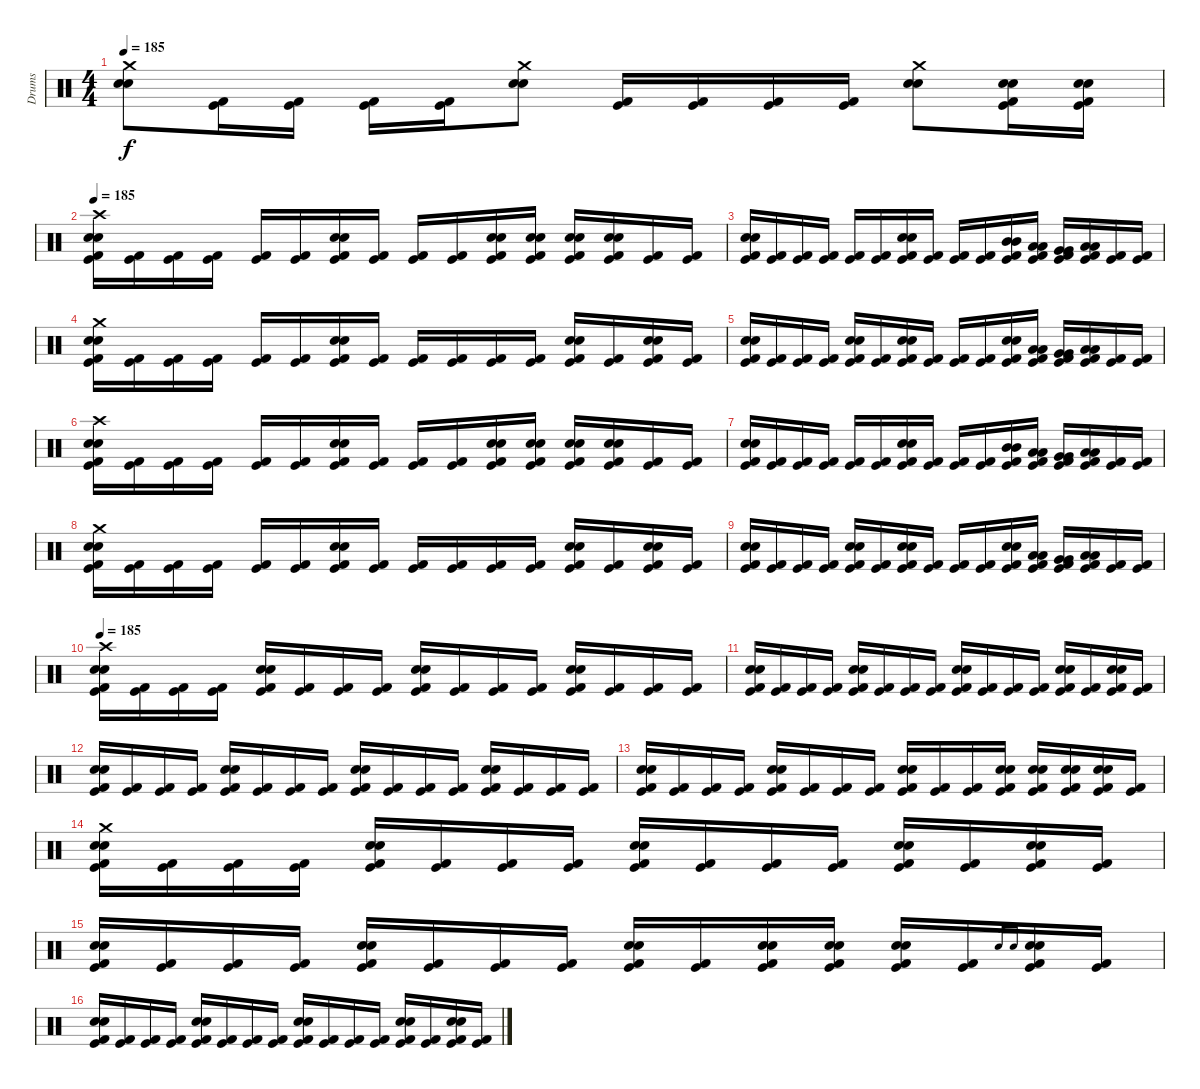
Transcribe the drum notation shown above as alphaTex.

\track ("Drums" "Drums") {instrument percussion}
\staff {score}
\articulation defaults
\ts (4 4)
\tempo 185
\clef neutral
\ks c
("Crash medium (hit)" "Electric Snare (hit)" "Snare (hit) 2").8{dy f} ("Kick (hit) 2" "Kick (hit)").16 ("Kick (hit) 2" "Kick (hit)").16 ("Kick (hit) 2" "Kick (hit)").16 ("Kick (hit) 2" "Kick (hit)").16 ("Crash medium (hit)" "Electric Snare (hit)" "Snare (hit) 2").8 ("Kick (hit) 2" "Kick (hit)").16 ("Kick (hit) 2" "Kick (hit)").16 ("Kick (hit) 2" "Kick (hit)").16 ("Kick (hit) 2" "Kick (hit)").16 ("Crash medium (hit)" "Electric Snare (hit)" "Snare (hit) 2").8 ("Electric Snare (hit)" "Snare (hit) 2" "Kick (hit) 2" "Kick (hit)").16 ("Electric Snare (hit)" "Snare (hit) 2" "Kick (hit) 2" "Kick (hit)").16 |
\tempo 185
("Crash high (hit)" "Electric Snare (hit)" "Snare (hit) 2" "Kick (hit) 2" "Kick (hit)").16 ("Kick (hit) 2" "Kick (hit)").16 ("Kick (hit) 2" "Kick (hit)").16 ("Kick (hit) 2" "Kick (hit)").16 ("Kick (hit) 2" "Kick (hit)").16 ("Kick (hit) 2" "Kick (hit)").16 ("Electric Snare (hit)" "Snare (hit) 2" "Kick (hit) 2" "Kick (hit)").16 ("Kick (hit) 2" "Kick (hit)").16 ("Kick (hit) 2" "Kick (hit)").16 ("Kick (hit) 2" "Kick (hit)").16 ("Electric Snare (hit)" "Snare (hit) 2" "Kick (hit) 2" "Kick (hit)").16 ("Electric Snare (hit)" "Snare (hit) 2" "Kick (hit) 2" "Kick (hit)").16 ("Electric Snare (hit)" "Snare (hit) 2" "Kick (hit) 2" "Kick (hit)").16 ("Electric Snare (hit)" "Snare (hit) 2" "Kick (hit) 2" "Kick (hit)").16 ("Kick (hit) 2" "Kick (hit)").16 ("Kick (hit) 2" "Kick (hit)").16 |
("Electric Snare (hit)" "Snare (hit) 2" "Kick (hit) 2" "Kick (hit)").16 ("Kick (hit) 2" "Kick (hit)").16 ("Kick (hit) 2" "Kick (hit)").16 ("Kick (hit) 2" "Kick (hit)").16 ("Kick (hit) 2" "Kick (hit)").16 ("Kick (hit) 2" "Kick (hit)").16 ("Electric Snare (hit)" "Snare (hit) 2" "Kick (hit) 2" "Kick (hit)").16 ("Kick (hit) 2" "Kick (hit)").16 ("Kick (hit) 2" "Kick (hit)").16 ("Kick (hit) 2" "Kick (hit)").16 ("Mid Tom (hit)" "Mid Tom (hit)" "Kick (hit) 2" "Kick (hit)").16 ("Low Tom (hit)" "Low Tom (hit)" "Kick (hit) 2" "Kick (hit)").16 ("Very Low Tom (hit)" "Very Low Tom (hit)" "Kick (hit) 2" "Kick (hit)").16 ("Low Floor Tom (hit)" "Low Floor Tom (hit)" "Kick (hit) 2" "Kick (hit)").16 ("Kick (hit) 2" "Kick (hit)").16 ("Kick (hit) 2" "Kick (hit)").16 |
("Crash medium (hit)" "Electric Snare (hit)" "Snare (hit) 2" "Kick (hit) 2" "Kick (hit)").16 ("Kick (hit) 2" "Kick (hit)").16 ("Kick (hit) 2" "Kick (hit)").16 ("Kick (hit) 2" "Kick (hit)").16 ("Kick (hit) 2" "Kick (hit)").16 ("Kick (hit) 2" "Kick (hit)").16 ("Electric Snare (hit)" "Snare (hit) 2" "Kick (hit) 2" "Kick (hit)").16 ("Kick (hit) 2" "Kick (hit)").16 ("Kick (hit) 2" "Kick (hit)").16 ("Kick (hit) 2" "Kick (hit)").16 ("Kick (hit) 2" "Kick (hit)").16 ("Kick (hit) 2" "Kick (hit)").16 ("Electric Snare (hit)" "Snare (hit) 2" "Kick (hit) 2" "Kick (hit)").16 ("Kick (hit) 2" "Kick (hit)").16 ("Electric Snare (hit)" "Snare (hit) 2" "Kick (hit) 2" "Kick (hit)").16 ("Kick (hit) 2" "Kick (hit)").16 |
("Electric Snare (hit)" "Snare (hit) 2" "Kick (hit) 2" "Kick (hit)").16 ("Kick (hit) 2" "Kick (hit)").16 ("Kick (hit) 2" "Kick (hit)").16 ("Kick (hit) 2" "Kick (hit)").16 ("Electric Snare (hit)" "Snare (hit) 2" "Kick (hit) 2" "Kick (hit)").16 ("Kick (hit) 2" "Kick (hit)").16 ("Electric Snare (hit)" "Snare (hit) 2" "Kick (hit) 2" "Kick (hit)").16 ("Kick (hit) 2" "Kick (hit)").16 ("Kick (hit) 2" "Kick (hit)").16 ("Kick (hit) 2" "Kick (hit)").16 ("Electric Snare (hit)" "Snare (hit) 2" "Kick (hit) 2" "Kick (hit)").16 ("Low Tom (hit)" "Low Tom (hit)" "Kick (hit) 2" "Kick (hit)").16 ("Very Low Tom (hit)" "Very Low Tom (hit)" "Kick (hit) 2" "Kick (hit)").16 ("Low Floor Tom (hit)" "Low Floor Tom (hit)" "Kick (hit) 2" "Kick (hit)").16 ("Kick (hit) 2" "Kick (hit)").16 ("Kick (hit) 2" "Kick (hit)").16 |
("Crash high (hit)" "Electric Snare (hit)" "Snare (hit) 2" "Kick (hit) 2" "Kick (hit)").16 ("Kick (hit) 2" "Kick (hit)").16 ("Kick (hit) 2" "Kick (hit)").16 ("Kick (hit) 2" "Kick (hit)").16 ("Kick (hit) 2" "Kick (hit)").16 ("Kick (hit) 2" "Kick (hit)").16 ("Electric Snare (hit)" "Snare (hit) 2" "Kick (hit) 2" "Kick (hit)").16 ("Kick (hit) 2" "Kick (hit)").16 ("Kick (hit) 2" "Kick (hit)").16 ("Kick (hit) 2" "Kick (hit)").16 ("Electric Snare (hit)" "Snare (hit) 2" "Kick (hit) 2" "Kick (hit)").16 ("Electric Snare (hit)" "Snare (hit) 2" "Kick (hit) 2" "Kick (hit)").16 ("Electric Snare (hit)" "Snare (hit) 2" "Kick (hit) 2" "Kick (hit)").16 ("Electric Snare (hit)" "Snare (hit) 2" "Kick (hit) 2" "Kick (hit)").16 ("Kick (hit) 2" "Kick (hit)").16 ("Kick (hit) 2" "Kick (hit)").16 |
("Electric Snare (hit)" "Snare (hit) 2" "Kick (hit) 2" "Kick (hit)").16 ("Kick (hit) 2" "Kick (hit)").16 ("Kick (hit) 2" "Kick (hit)").16 ("Kick (hit) 2" "Kick (hit)").16 ("Kick (hit) 2" "Kick (hit)").16 ("Kick (hit) 2" "Kick (hit)").16 ("Electric Snare (hit)" "Snare (hit) 2" "Kick (hit) 2" "Kick (hit)").16 ("Kick (hit) 2" "Kick (hit)").16 ("Kick (hit) 2" "Kick (hit)").16 ("Kick (hit) 2" "Kick (hit)").16 ("Mid Tom (hit)" "Mid Tom (hit)" "Kick (hit) 2" "Kick (hit)").16 ("Low Tom (hit)" "Low Tom (hit)" "Kick (hit) 2" "Kick (hit)").16 ("Very Low Tom (hit)" "Very Low Tom (hit)" "Kick (hit) 2" "Kick (hit)").16 ("Low Floor Tom (hit)" "Low Floor Tom (hit)" "Kick (hit) 2" "Kick (hit)").16 ("Kick (hit) 2" "Kick (hit)").16 ("Kick (hit) 2" "Kick (hit)").16 |
("Crash medium (hit)" "Electric Snare (hit)" "Snare (hit) 2" "Kick (hit) 2" "Kick (hit)").16 ("Kick (hit) 2" "Kick (hit)").16 ("Kick (hit) 2" "Kick (hit)").16 ("Kick (hit) 2" "Kick (hit)").16 ("Kick (hit) 2" "Kick (hit)").16 ("Kick (hit) 2" "Kick (hit)").16 ("Electric Snare (hit)" "Snare (hit) 2" "Kick (hit) 2" "Kick (hit)").16 ("Kick (hit) 2" "Kick (hit)").16 ("Kick (hit) 2" "Kick (hit)").16 ("Kick (hit) 2" "Kick (hit)").16 ("Kick (hit) 2" "Kick (hit)").16 ("Kick (hit) 2" "Kick (hit)").16 ("Electric Snare (hit)" "Snare (hit) 2" "Kick (hit) 2" "Kick (hit)").16 ("Kick (hit) 2" "Kick (hit)").16 ("Electric Snare (hit)" "Snare (hit) 2" "Kick (hit) 2" "Kick (hit)").16 ("Kick (hit) 2" "Kick (hit)").16 |
("Electric Snare (hit)" "Snare (hit) 2" "Kick (hit) 2" "Kick (hit)").16 ("Kick (hit) 2" "Kick (hit)").16 ("Kick (hit) 2" "Kick (hit)").16 ("Kick (hit) 2" "Kick (hit)").16 ("Electric Snare (hit)" "Snare (hit) 2" "Kick (hit) 2" "Kick (hit)").16 ("Kick (hit) 2" "Kick (hit)").16 ("Electric Snare (hit)" "Snare (hit) 2" "Kick (hit) 2" "Kick (hit)").16 ("Kick (hit) 2" "Kick (hit)").16 ("Kick (hit) 2" "Kick (hit)").16 ("Kick (hit) 2" "Kick (hit)").16 ("Electric Snare (hit)" "Snare (hit) 2" "Kick (hit) 2" "Kick (hit)").16 ("Low Tom (hit)" "Low Tom (hit)" "Kick (hit) 2" "Kick (hit)").16 ("Very Low Tom (hit)" "Very Low Tom (hit)" "Kick (hit) 2" "Kick (hit)").16 ("Low Floor Tom (hit)" "Low Floor Tom (hit)" "Kick (hit) 2" "Kick (hit)").16 ("Kick (hit) 2" "Kick (hit)").16 ("Kick (hit) 2" "Kick (hit)").16 |
\tempo 185
("Crash high (hit)" "Electric Snare (hit)" "Snare (hit) 2" "Kick (hit) 2" "Kick (hit)").16 ("Kick (hit) 2" "Kick (hit)").16 ("Kick (hit) 2" "Kick (hit)").16 ("Kick (hit) 2" "Kick (hit)").16 ("Electric Snare (hit)" "Snare (hit) 2" "Kick (hit) 2" "Kick (hit)").16 ("Kick (hit) 2" "Kick (hit)").16 ("Kick (hit) 2" "Kick (hit)").16 ("Kick (hit) 2" "Kick (hit)").16 ("Electric Snare (hit)" "Snare (hit) 2" "Kick (hit) 2" "Kick (hit)").16 ("Kick (hit) 2" "Kick (hit)").16 ("Kick (hit) 2" "Kick (hit)").16 ("Kick (hit) 2" "Kick (hit)").16 ("Electric Snare (hit)" "Snare (hit) 2" "Kick (hit) 2" "Kick (hit)").16 ("Kick (hit) 2" "Kick (hit)").16 ("Kick (hit) 2" "Kick (hit)").16 ("Kick (hit) 2" "Kick (hit)").16 |
("Electric Snare (hit)" "Snare (hit) 2" "Kick (hit) 2" "Kick (hit)").16 ("Kick (hit) 2" "Kick (hit)").16 ("Kick (hit) 2" "Kick (hit)").16 ("Kick (hit) 2" "Kick (hit)").16 ("Electric Snare (hit)" "Snare (hit) 2" "Kick (hit) 2" "Kick (hit)").16 ("Kick (hit) 2" "Kick (hit)").16 ("Kick (hit) 2" "Kick (hit)").16 ("Kick (hit) 2" "Kick (hit)").16 ("Electric Snare (hit)" "Snare (hit) 2" "Kick (hit) 2" "Kick (hit)").16 ("Kick (hit) 2" "Kick (hit)").16 ("Kick (hit) 2" "Kick (hit)").16 ("Kick (hit) 2" "Kick (hit)").16 ("Electric Snare (hit)" "Snare (hit) 2" "Kick (hit) 2" "Kick (hit)").16 ("Kick (hit) 2" "Kick (hit)").16 ("Electric Snare (hit)" "Snare (hit) 2" "Kick (hit) 2" "Kick (hit)").16 ("Kick (hit) 2" "Kick (hit)").16 |
("Electric Snare (hit)" "Snare (hit) 2" "Kick (hit) 2" "Kick (hit)").16 ("Kick (hit) 2" "Kick (hit)").16 ("Kick (hit) 2" "Kick (hit)").16 ("Kick (hit) 2" "Kick (hit)").16 ("Electric Snare (hit)" "Snare (hit) 2" "Kick (hit) 2" "Kick (hit)").16 ("Kick (hit) 2" "Kick (hit)").16 ("Kick (hit) 2" "Kick (hit)").16 ("Kick (hit) 2" "Kick (hit)").16 ("Electric Snare (hit)" "Snare (hit) 2" "Kick (hit) 2" "Kick (hit)").16 ("Kick (hit) 2" "Kick (hit)").16 ("Kick (hit) 2" "Kick (hit)").16 ("Kick (hit) 2" "Kick (hit)").16 ("Electric Snare (hit)" "Snare (hit) 2" "Kick (hit) 2" "Kick (hit)").16 ("Kick (hit) 2" "Kick (hit)").16 ("Kick (hit) 2" "Kick (hit)").16 ("Kick (hit) 2" "Kick (hit)").16 |
("Electric Snare (hit)" "Snare (hit) 2" "Kick (hit) 2" "Kick (hit)").16 ("Kick (hit) 2" "Kick (hit)").16 ("Kick (hit) 2" "Kick (hit)").16 ("Kick (hit) 2" "Kick (hit)").16 ("Electric Snare (hit)" "Snare (hit) 2" "Kick (hit) 2" "Kick (hit)").16 ("Kick (hit) 2" "Kick (hit)").16 ("Kick (hit) 2" "Kick (hit)").16 ("Kick (hit) 2" "Kick (hit)").16 ("Electric Snare (hit)" "Snare (hit) 2" "Kick (hit) 2" "Kick (hit)").16 ("Kick (hit) 2" "Kick (hit)").16 ("Kick (hit) 2" "Kick (hit)").16 ("Electric Snare (hit)" "Snare (hit) 2" "Kick (hit) 2" "Kick (hit)").16 ("Electric Snare (hit)" "Snare (hit) 2" "Kick (hit) 2" "Kick (hit)").16 ("Electric Snare (hit)" "Snare (hit) 2" "Kick (hit) 2" "Kick (hit)").16 ("Electric Snare (hit)" "Snare (hit) 2" "Kick (hit) 2" "Kick (hit)").16 ("Kick (hit) 2" "Kick (hit)").16 |
("Crash medium (hit)" "Electric Snare (hit)" "Snare (hit) 2" "Kick (hit) 2" "Kick (hit)").16 ("Kick (hit) 2" "Kick (hit)").16 ("Kick (hit) 2" "Kick (hit)").16 ("Kick (hit) 2" "Kick (hit)").16 ("Electric Snare (hit)" "Snare (hit) 2" "Kick (hit) 2" "Kick (hit)").16 ("Kick (hit) 2" "Kick (hit)").16 ("Kick (hit) 2" "Kick (hit)").16 ("Kick (hit) 2" "Kick (hit)").16 ("Electric Snare (hit)" "Snare (hit) 2" "Kick (hit) 2" "Kick (hit)").16 ("Kick (hit) 2" "Kick (hit)").16 ("Kick (hit) 2" "Kick (hit)").16 ("Kick (hit) 2" "Kick (hit)").16 ("Electric Snare (hit)" "Snare (hit) 2" "Kick (hit) 2" "Kick (hit)").16 ("Kick (hit) 2" "Kick (hit)").16 ("Electric Snare (hit)" "Snare (hit) 2" "Kick (hit) 2" "Kick (hit)").16 ("Kick (hit) 2" "Kick (hit)").16 |
("Electric Snare (hit)" "Snare (hit) 2" "Kick (hit) 2" "Kick (hit)").16 ("Kick (hit) 2" "Kick (hit)").16 ("Kick (hit) 2" "Kick (hit)").16 ("Kick (hit) 2" "Kick (hit)").16 ("Electric Snare (hit)" "Snare (hit) 2" "Kick (hit) 2" "Kick (hit)").16 ("Kick (hit) 2" "Kick (hit)").16 ("Kick (hit) 2" "Kick (hit)").16 ("Kick (hit) 2" "Kick (hit)").16 ("Electric Snare (hit)" "Snare (hit) 2" "Kick (hit) 2" "Kick (hit)").16 ("Kick (hit) 2" "Kick (hit)").16 ("Electric Snare (hit)" "Snare (hit) 2" "Kick (hit) 2" "Kick (hit)").16 ("Electric Snare (hit)" "Snare (hit) 2" "Kick (hit) 2" "Kick (hit)").16 ("Electric Snare (hit)" "Snare (hit) 2" "Kick (hit) 2" "Kick (hit)").16 ("Kick (hit) 2" "Kick (hit)").16 "Electric Snare (hit)".16{gr} "Snare (hit) 2".16{gr} ("Electric Snare (hit)" "Snare (hit) 2" "Kick (hit) 2" "Kick (hit)").16 ("Kick (hit) 2" "Kick (hit)").16 |
("Electric Snare (hit)" "Snare (hit) 2" "Kick (hit) 2" "Kick (hit)").16 ("Kick (hit) 2" "Kick (hit)").16 ("Kick (hit) 2" "Kick (hit)").16 ("Kick (hit) 2" "Kick (hit)").16 ("Electric Snare (hit)" "Snare (hit) 2" "Kick (hit) 2" "Kick (hit)").16 ("Kick (hit) 2" "Kick (hit)").16 ("Kick (hit) 2" "Kick (hit)").16 ("Kick (hit) 2" "Kick (hit)").16 ("Electric Snare (hit)" "Snare (hit) 2" "Kick (hit) 2" "Kick (hit)").16 ("Kick (hit) 2" "Kick (hit)").16 ("Kick (hit) 2" "Kick (hit)").16 ("Kick (hit) 2" "Kick (hit)").16 ("Electric Snare (hit)" "Snare (hit) 2" "Kick (hit) 2" "Kick (hit)").16 ("Kick (hit) 2" "Kick (hit)").16 ("Electric Snare (hit)" "Snare (hit) 2" "Kick (hit) 2" "Kick (hit)").16 ("Kick (hit) 2" "Kick (hit)").16
